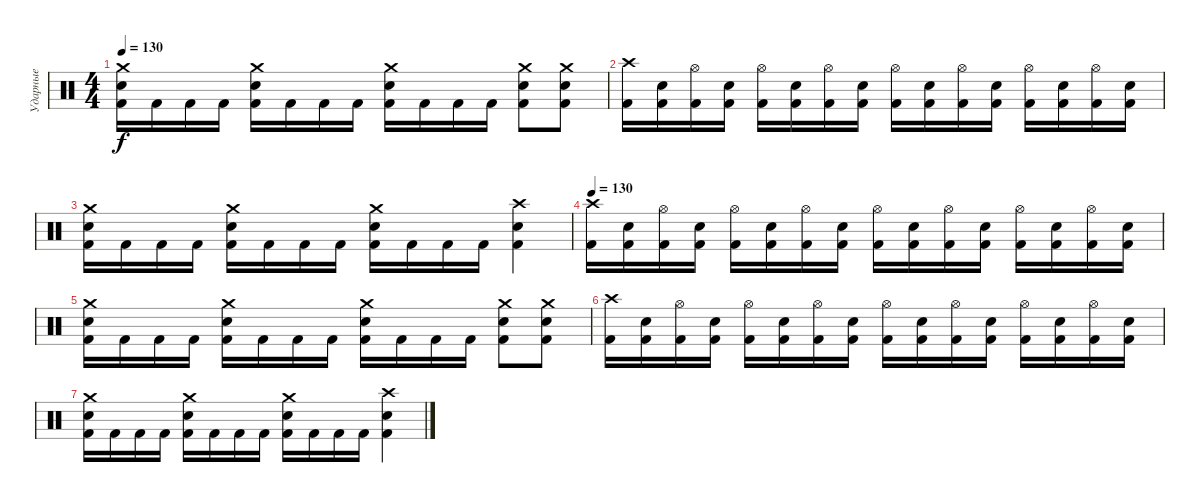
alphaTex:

\track ("Ударные" "Ударные") {instrument percussion}
\staff {score}
\articulation defaults
\ts (4 4)
\tempo 130
\clef neutral
\ks c
("Crash medium (hit)" "Electric Snare (hit)" "Kick (hit) 2").16{dy f} "Kick (hit) 2".16 "Kick (hit) 2".16 "Kick (hit) 2".16 ("Crash medium (hit)" "Electric Snare (hit)" "Kick (hit) 2").16 "Kick (hit) 2".16 "Kick (hit) 2".16 "Kick (hit) 2".16 ("Crash medium (hit)" "Electric Snare (hit)" "Kick (hit) 2").16 "Kick (hit) 2".16 "Kick (hit) 2".16 "Kick (hit) 2".16 ("Crash medium (hit)" "Electric Snare (hit)" "Kick (hit) 2").8 ("Crash medium (hit)" "Electric Snare (hit)" "Kick (hit) 2").8 |
("Crash high (hit)" "Kick (hit) 2").16 ("Electric Snare (hit)" "Kick (hit) 2").16 ("Hi-Hat (open)" "Kick (hit) 2").16 ("Electric Snare (hit)" "Kick (hit) 2").16 ("Hi-Hat (open)" "Kick (hit) 2").16 ("Electric Snare (hit)" "Kick (hit) 2").16 ("Hi-Hat (open)" "Kick (hit) 2").16 ("Electric Snare (hit)" "Kick (hit) 2").16 ("Hi-Hat (open)" "Kick (hit) 2").16 ("Electric Snare (hit)" "Kick (hit) 2").16 ("Hi-Hat (open)" "Kick (hit) 2").16 ("Electric Snare (hit)" "Kick (hit) 2").16 ("Hi-Hat (open)" "Kick (hit) 2").16 ("Electric Snare (hit)" "Kick (hit) 2").16 ("Hi-Hat (open)" "Kick (hit) 2").16 ("Electric Snare (hit)" "Kick (hit) 2").16 |
("Crash medium (hit)" "Electric Snare (hit)" "Kick (hit) 2").16 "Kick (hit) 2".16 "Kick (hit) 2".16 "Kick (hit) 2".16 ("Crash medium (hit)" "Electric Snare (hit)" "Kick (hit) 2").16 "Kick (hit) 2".16 "Kick (hit) 2".16 "Kick (hit) 2".16 ("Crash medium (hit)" "Electric Snare (hit)" "Kick (hit) 2").16 "Kick (hit) 2".16 "Kick (hit) 2".16 "Kick (hit) 2".16 ("Crash high (hit)" "Electric Snare (hit)" "Kick (hit) 2").4 |
\tempo 130
("Crash high (hit)" "Kick (hit) 2").16 ("Electric Snare (hit)" "Kick (hit) 2").16 ("Hi-Hat (open)" "Kick (hit) 2").16 ("Electric Snare (hit)" "Kick (hit) 2").16 ("Hi-Hat (open)" "Kick (hit) 2").16 ("Electric Snare (hit)" "Kick (hit) 2").16 ("Hi-Hat (open)" "Kick (hit) 2").16 ("Electric Snare (hit)" "Kick (hit) 2").16 ("Hi-Hat (open)" "Kick (hit) 2").16 ("Electric Snare (hit)" "Kick (hit) 2").16 ("Hi-Hat (open)" "Kick (hit) 2").16 ("Electric Snare (hit)" "Kick (hit) 2").16 ("Hi-Hat (open)" "Kick (hit) 2").16 ("Electric Snare (hit)" "Kick (hit) 2").16 ("Hi-Hat (open)" "Kick (hit) 2").16 ("Electric Snare (hit)" "Kick (hit) 2").16 |
("Crash medium (hit)" "Electric Snare (hit)" "Kick (hit) 2").16 "Kick (hit) 2".16 "Kick (hit) 2".16 "Kick (hit) 2".16 ("Crash medium (hit)" "Electric Snare (hit)" "Kick (hit) 2").16 "Kick (hit) 2".16 "Kick (hit) 2".16 "Kick (hit) 2".16 ("Crash medium (hit)" "Electric Snare (hit)" "Kick (hit) 2").16 "Kick (hit) 2".16 "Kick (hit) 2".16 "Kick (hit) 2".16 ("Crash medium (hit)" "Electric Snare (hit)" "Kick (hit) 2").8 ("Crash medium (hit)" "Electric Snare (hit)" "Kick (hit) 2").8 |
("Crash high (hit)" "Kick (hit) 2").16 ("Electric Snare (hit)" "Kick (hit) 2").16 ("Hi-Hat (open)" "Kick (hit) 2").16 ("Electric Snare (hit)" "Kick (hit) 2").16 ("Hi-Hat (open)" "Kick (hit) 2").16 ("Electric Snare (hit)" "Kick (hit) 2").16 ("Hi-Hat (open)" "Kick (hit) 2").16 ("Electric Snare (hit)" "Kick (hit) 2").16 ("Hi-Hat (open)" "Kick (hit) 2").16 ("Electric Snare (hit)" "Kick (hit) 2").16 ("Hi-Hat (open)" "Kick (hit) 2").16 ("Electric Snare (hit)" "Kick (hit) 2").16 ("Hi-Hat (open)" "Kick (hit) 2").16 ("Electric Snare (hit)" "Kick (hit) 2").16 ("Hi-Hat (open)" "Kick (hit) 2").16 ("Electric Snare (hit)" "Kick (hit) 2").16 |
("Crash medium (hit)" "Electric Snare (hit)" "Kick (hit) 2").16 "Kick (hit) 2".16 "Kick (hit) 2".16 "Kick (hit) 2".16 ("Crash medium (hit)" "Electric Snare (hit)" "Kick (hit) 2").16 "Kick (hit) 2".16 "Kick (hit) 2".16 "Kick (hit) 2".16 ("Crash medium (hit)" "Electric Snare (hit)" "Kick (hit) 2").16 "Kick (hit) 2".16 "Kick (hit) 2".16 "Kick (hit) 2".16 ("Crash high (hit)" "Electric Snare (hit)" "Kick (hit) 2").4
